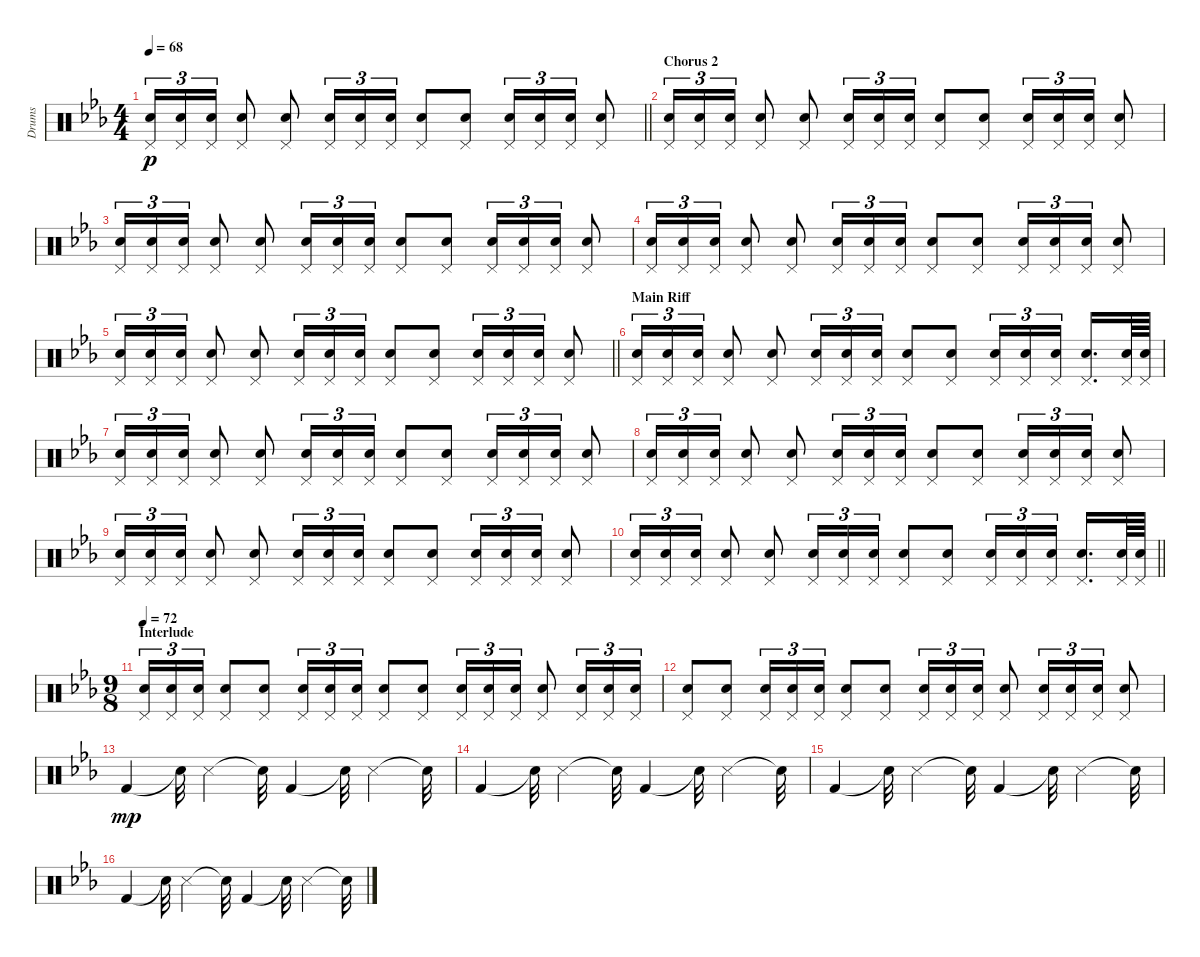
\track ("Drums" "Drums") {instrument percussion}
\staff {score}
\articulation defaults
\ts (4 4)
\tempo 68
\clef neutral
\barLineRight lightlight
\ks eb
("Pedal Hi-Hat (hit)" "Electric Snare (hit)").16{tu (3 2) dy p} ("Pedal Hi-Hat (hit)" "Electric Snare (hit)").16{tu (3 2)} ("Pedal Hi-Hat (hit)" "Electric Snare (hit)").16{tu (3 2)} ("Pedal Hi-Hat (hit)" "Electric Snare (hit)").8 ("Pedal Hi-Hat (hit)" "Electric Snare (hit)").8 ("Pedal Hi-Hat (hit)" "Electric Snare (hit)").16{tu (3 2)} ("Pedal Hi-Hat (hit)" "Electric Snare (hit)").16{tu (3 2)} ("Pedal Hi-Hat (hit)" "Electric Snare (hit)").16{tu (3 2)} ("Pedal Hi-Hat (hit)" "Electric Snare (hit)").8 ("Pedal Hi-Hat (hit)" "Electric Snare (hit)").8 ("Pedal Hi-Hat (hit)" "Electric Snare (hit)").16{tu (3 2)} ("Pedal Hi-Hat (hit)" "Electric Snare (hit)").16{tu (3 2)} ("Pedal Hi-Hat (hit)" "Electric Snare (hit)").16{tu (3 2)} ("Pedal Hi-Hat (hit)" "Electric Snare (hit)").8 |
\section ("" "Chorus 2")
("Pedal Hi-Hat (hit)" "Electric Snare (hit)").16{tu (3 2)} ("Pedal Hi-Hat (hit)" "Electric Snare (hit)").16{tu (3 2)} ("Pedal Hi-Hat (hit)" "Electric Snare (hit)").16{tu (3 2)} ("Pedal Hi-Hat (hit)" "Electric Snare (hit)").8 ("Pedal Hi-Hat (hit)" "Electric Snare (hit)").8 ("Pedal Hi-Hat (hit)" "Electric Snare (hit)").16{tu (3 2)} ("Pedal Hi-Hat (hit)" "Electric Snare (hit)").16{tu (3 2)} ("Pedal Hi-Hat (hit)" "Electric Snare (hit)").16{tu (3 2)} ("Pedal Hi-Hat (hit)" "Electric Snare (hit)").8 ("Pedal Hi-Hat (hit)" "Electric Snare (hit)").8 ("Pedal Hi-Hat (hit)" "Electric Snare (hit)").16{tu (3 2)} ("Pedal Hi-Hat (hit)" "Electric Snare (hit)").16{tu (3 2)} ("Pedal Hi-Hat (hit)" "Electric Snare (hit)").16{tu (3 2)} ("Pedal Hi-Hat (hit)" "Electric Snare (hit)").8 |
("Pedal Hi-Hat (hit)" "Electric Snare (hit)").16{tu (3 2)} ("Pedal Hi-Hat (hit)" "Electric Snare (hit)").16{tu (3 2)} ("Pedal Hi-Hat (hit)" "Electric Snare (hit)").16{tu (3 2)} ("Pedal Hi-Hat (hit)" "Electric Snare (hit)").8 ("Pedal Hi-Hat (hit)" "Electric Snare (hit)").8 ("Pedal Hi-Hat (hit)" "Electric Snare (hit)").16{tu (3 2)} ("Pedal Hi-Hat (hit)" "Electric Snare (hit)").16{tu (3 2)} ("Pedal Hi-Hat (hit)" "Electric Snare (hit)").16{tu (3 2)} ("Pedal Hi-Hat (hit)" "Electric Snare (hit)").8 ("Pedal Hi-Hat (hit)" "Electric Snare (hit)").8 ("Pedal Hi-Hat (hit)" "Electric Snare (hit)").16{tu (3 2)} ("Pedal Hi-Hat (hit)" "Electric Snare (hit)").16{tu (3 2)} ("Pedal Hi-Hat (hit)" "Electric Snare (hit)").16{tu (3 2)} ("Pedal Hi-Hat (hit)" "Electric Snare (hit)").8 |
("Pedal Hi-Hat (hit)" "Electric Snare (hit)").16{tu (3 2)} ("Pedal Hi-Hat (hit)" "Electric Snare (hit)").16{tu (3 2)} ("Pedal Hi-Hat (hit)" "Electric Snare (hit)").16{tu (3 2)} ("Pedal Hi-Hat (hit)" "Electric Snare (hit)").8 ("Pedal Hi-Hat (hit)" "Electric Snare (hit)").8 ("Pedal Hi-Hat (hit)" "Electric Snare (hit)").16{tu (3 2)} ("Pedal Hi-Hat (hit)" "Electric Snare (hit)").16{tu (3 2)} ("Pedal Hi-Hat (hit)" "Electric Snare (hit)").16{tu (3 2)} ("Pedal Hi-Hat (hit)" "Electric Snare (hit)").8 ("Pedal Hi-Hat (hit)" "Electric Snare (hit)").8 ("Pedal Hi-Hat (hit)" "Electric Snare (hit)").16{tu (3 2)} ("Pedal Hi-Hat (hit)" "Electric Snare (hit)").16{tu (3 2)} ("Pedal Hi-Hat (hit)" "Electric Snare (hit)").16{tu (3 2)} ("Pedal Hi-Hat (hit)" "Electric Snare (hit)").8 |
\barLineRight lightlight
("Pedal Hi-Hat (hit)" "Electric Snare (hit)").16{tu (3 2)} ("Pedal Hi-Hat (hit)" "Electric Snare (hit)").16{tu (3 2)} ("Pedal Hi-Hat (hit)" "Electric Snare (hit)").16{tu (3 2)} ("Pedal Hi-Hat (hit)" "Electric Snare (hit)").8 ("Pedal Hi-Hat (hit)" "Electric Snare (hit)").8 ("Pedal Hi-Hat (hit)" "Electric Snare (hit)").16{tu (3 2)} ("Pedal Hi-Hat (hit)" "Electric Snare (hit)").16{tu (3 2)} ("Pedal Hi-Hat (hit)" "Electric Snare (hit)").16{tu (3 2)} ("Pedal Hi-Hat (hit)" "Electric Snare (hit)").8 ("Pedal Hi-Hat (hit)" "Electric Snare (hit)").8 ("Pedal Hi-Hat (hit)" "Electric Snare (hit)").16{tu (3 2)} ("Pedal Hi-Hat (hit)" "Electric Snare (hit)").16{tu (3 2)} ("Pedal Hi-Hat (hit)" "Electric Snare (hit)").16{tu (3 2)} ("Pedal Hi-Hat (hit)" "Electric Snare (hit)").8 |
\section ("" "Main Riff")
("Pedal Hi-Hat (hit)" "Electric Snare (hit)").16{tu (3 2)} ("Pedal Hi-Hat (hit)" "Electric Snare (hit)").16{tu (3 2)} ("Pedal Hi-Hat (hit)" "Electric Snare (hit)").16{tu (3 2)} ("Pedal Hi-Hat (hit)" "Electric Snare (hit)").8 ("Pedal Hi-Hat (hit)" "Electric Snare (hit)").8 ("Pedal Hi-Hat (hit)" "Electric Snare (hit)").16{tu (3 2)} ("Pedal Hi-Hat (hit)" "Electric Snare (hit)").16{tu (3 2)} ("Pedal Hi-Hat (hit)" "Electric Snare (hit)").16{tu (3 2)} ("Pedal Hi-Hat (hit)" "Electric Snare (hit)").8 ("Pedal Hi-Hat (hit)" "Electric Snare (hit)").8 ("Pedal Hi-Hat (hit)" "Electric Snare (hit)").16{tu (3 2)} ("Pedal Hi-Hat (hit)" "Electric Snare (hit)").16{tu (3 2)} ("Pedal Hi-Hat (hit)" "Electric Snare (hit)").16{tu (3 2) beam splitsecondary} ("Pedal Hi-Hat (hit)" "Electric Snare (hit)").16{d} ("Pedal Hi-Hat (hit)" "Electric Snare (hit)").64 ("Pedal Hi-Hat (hit)" "Electric Snare (hit)").64 |
("Pedal Hi-Hat (hit)" "Electric Snare (hit)").16{tu (3 2)} ("Pedal Hi-Hat (hit)" "Electric Snare (hit)").16{tu (3 2)} ("Pedal Hi-Hat (hit)" "Electric Snare (hit)").16{tu (3 2)} ("Pedal Hi-Hat (hit)" "Electric Snare (hit)").8 ("Pedal Hi-Hat (hit)" "Electric Snare (hit)").8 ("Pedal Hi-Hat (hit)" "Electric Snare (hit)").16{tu (3 2)} ("Pedal Hi-Hat (hit)" "Electric Snare (hit)").16{tu (3 2)} ("Pedal Hi-Hat (hit)" "Electric Snare (hit)").16{tu (3 2)} ("Pedal Hi-Hat (hit)" "Electric Snare (hit)").8 ("Pedal Hi-Hat (hit)" "Electric Snare (hit)").8 ("Pedal Hi-Hat (hit)" "Electric Snare (hit)").16{tu (3 2)} ("Pedal Hi-Hat (hit)" "Electric Snare (hit)").16{tu (3 2)} ("Pedal Hi-Hat (hit)" "Electric Snare (hit)").16{tu (3 2)} ("Pedal Hi-Hat (hit)" "Electric Snare (hit)").8 |
("Pedal Hi-Hat (hit)" "Electric Snare (hit)").16{tu (3 2)} ("Pedal Hi-Hat (hit)" "Electric Snare (hit)").16{tu (3 2)} ("Pedal Hi-Hat (hit)" "Electric Snare (hit)").16{tu (3 2)} ("Pedal Hi-Hat (hit)" "Electric Snare (hit)").8 ("Pedal Hi-Hat (hit)" "Electric Snare (hit)").8 ("Pedal Hi-Hat (hit)" "Electric Snare (hit)").16{tu (3 2)} ("Pedal Hi-Hat (hit)" "Electric Snare (hit)").16{tu (3 2)} ("Pedal Hi-Hat (hit)" "Electric Snare (hit)").16{tu (3 2)} ("Pedal Hi-Hat (hit)" "Electric Snare (hit)").8 ("Pedal Hi-Hat (hit)" "Electric Snare (hit)").8 ("Pedal Hi-Hat (hit)" "Electric Snare (hit)").16{tu (3 2)} ("Pedal Hi-Hat (hit)" "Electric Snare (hit)").16{tu (3 2)} ("Pedal Hi-Hat (hit)" "Electric Snare (hit)").16{tu (3 2)} ("Pedal Hi-Hat (hit)" "Electric Snare (hit)").8 |
("Pedal Hi-Hat (hit)" "Electric Snare (hit)").16{tu (3 2)} ("Pedal Hi-Hat (hit)" "Electric Snare (hit)").16{tu (3 2)} ("Pedal Hi-Hat (hit)" "Electric Snare (hit)").16{tu (3 2)} ("Pedal Hi-Hat (hit)" "Electric Snare (hit)").8 ("Pedal Hi-Hat (hit)" "Electric Snare (hit)").8 ("Pedal Hi-Hat (hit)" "Electric Snare (hit)").16{tu (3 2)} ("Pedal Hi-Hat (hit)" "Electric Snare (hit)").16{tu (3 2)} ("Pedal Hi-Hat (hit)" "Electric Snare (hit)").16{tu (3 2)} ("Pedal Hi-Hat (hit)" "Electric Snare (hit)").8 ("Pedal Hi-Hat (hit)" "Electric Snare (hit)").8 ("Pedal Hi-Hat (hit)" "Electric Snare (hit)").16{tu (3 2)} ("Pedal Hi-Hat (hit)" "Electric Snare (hit)").16{tu (3 2)} ("Pedal Hi-Hat (hit)" "Electric Snare (hit)").16{tu (3 2)} ("Pedal Hi-Hat (hit)" "Electric Snare (hit)").8 |
\barLineRight lightlight
("Pedal Hi-Hat (hit)" "Electric Snare (hit)").16{tu (3 2)} ("Pedal Hi-Hat (hit)" "Electric Snare (hit)").16{tu (3 2)} ("Pedal Hi-Hat (hit)" "Electric Snare (hit)").16{tu (3 2)} ("Pedal Hi-Hat (hit)" "Electric Snare (hit)").8 ("Pedal Hi-Hat (hit)" "Electric Snare (hit)").8 ("Pedal Hi-Hat (hit)" "Electric Snare (hit)").16{tu (3 2)} ("Pedal Hi-Hat (hit)" "Electric Snare (hit)").16{tu (3 2)} ("Pedal Hi-Hat (hit)" "Electric Snare (hit)").16{tu (3 2)} ("Pedal Hi-Hat (hit)" "Electric Snare (hit)").8 ("Pedal Hi-Hat (hit)" "Electric Snare (hit)").8 ("Pedal Hi-Hat (hit)" "Electric Snare (hit)").16{tu (3 2)} ("Pedal Hi-Hat (hit)" "Electric Snare (hit)").16{tu (3 2)} ("Pedal Hi-Hat (hit)" "Electric Snare (hit)").16{tu (3 2) beam splitsecondary} ("Pedal Hi-Hat (hit)" "Electric Snare (hit)").16{d} ("Pedal Hi-Hat (hit)" "Electric Snare (hit)").64 ("Pedal Hi-Hat (hit)" "Electric Snare (hit)").64 |
\ts (9 8)
\section ("" "Interlude")
\tempo 72
("Pedal Hi-Hat (hit)" "Electric Snare (hit)").16{tu (3 2) volume 0} ("Pedal Hi-Hat (hit)" "Electric Snare (hit)").16{tu (3 2)} ("Pedal Hi-Hat (hit)" "Electric Snare (hit)").16{tu (3 2)} ("Pedal Hi-Hat (hit)" "Electric Snare (hit)").8 ("Pedal Hi-Hat (hit)" "Electric Snare (hit)").8 ("Pedal Hi-Hat (hit)" "Electric Snare (hit)").16{tu (3 2)} ("Pedal Hi-Hat (hit)" "Electric Snare (hit)").16{tu (3 2)} ("Pedal Hi-Hat (hit)" "Electric Snare (hit)").16{tu (3 2)} ("Pedal Hi-Hat (hit)" "Electric Snare (hit)").8 ("Pedal Hi-Hat (hit)" "Electric Snare (hit)").8 ("Pedal Hi-Hat (hit)" "Electric Snare (hit)").16{tu (3 2)} ("Pedal Hi-Hat (hit)" "Electric Snare (hit)").16{tu (3 2)} ("Pedal Hi-Hat (hit)" "Electric Snare (hit)").16{tu (3 2)} ("Pedal Hi-Hat (hit)" "Electric Snare (hit)").8 ("Pedal Hi-Hat (hit)" "Electric Snare (hit)").16{tu (3 2)} ("Pedal Hi-Hat (hit)" "Electric Snare (hit)").16{tu (3 2)} ("Pedal Hi-Hat (hit)" "Electric Snare (hit)").16{tu (3 2)} |
("Pedal Hi-Hat (hit)" "Electric Snare (hit)").8 ("Pedal Hi-Hat (hit)" "Electric Snare (hit)").8 ("Pedal Hi-Hat (hit)" "Electric Snare (hit)").16{tu (3 2)} ("Pedal Hi-Hat (hit)" "Electric Snare (hit)").16{tu (3 2)} ("Pedal Hi-Hat (hit)" "Electric Snare (hit)").16{tu (3 2)} ("Pedal Hi-Hat (hit)" "Electric Snare (hit)").8 ("Pedal Hi-Hat (hit)" "Electric Snare (hit)").8 ("Pedal Hi-Hat (hit)" "Electric Snare (hit)").16{tu (3 2)} ("Pedal Hi-Hat (hit)" "Electric Snare (hit)").16{tu (3 2)} ("Pedal Hi-Hat (hit)" "Electric Snare (hit)").16{tu (3 2)} ("Pedal Hi-Hat (hit)" "Electric Snare (hit)").8 ("Pedal Hi-Hat (hit)" "Electric Snare (hit)").16{tu (3 2)} ("Pedal Hi-Hat (hit)" "Electric Snare (hit)").16{tu (3 2)} ("Pedal Hi-Hat (hit)" "Electric Snare (hit)").16{tu (3 2)} ("Pedal Hi-Hat (hit)" "Electric Snare (hit)").8 |
"Kick (hit) 2".4{dy mp volume 10} "Snare (hit)"{t}.32 "Snare (side stick) 3".4 "Snare (hit)"{t}.32 "Kick (hit) 2".4 "Snare (hit)"{t}.32 "Snare (side stick) 3".4 "Snare (hit)"{t}.32 |
"Kick (hit) 2".4 "Snare (hit)"{t}.32 "Snare (side stick) 3".4 "Snare (hit)"{t}.32 "Kick (hit) 2".4 "Snare (hit)"{t}.32 "Snare (side stick) 3".4 "Snare (hit)"{t}.32 |
"Kick (hit) 2".4 "Snare (hit)"{t}.32 "Snare (side stick) 3".4 "Snare (hit)"{t}.32 "Kick (hit) 2".4 "Snare (hit)"{t}.32 "Snare (side stick) 3".4 "Snare (hit)"{t}.32 |
"Kick (hit) 2".4 "Snare (hit)"{t}.32 "Snare (side stick) 3".4 "Snare (hit)"{t}.32 "Kick (hit) 2".4 "Snare (hit)"{t}.32 "Snare (side stick) 3".4 "Snare (hit)"{t}.32
